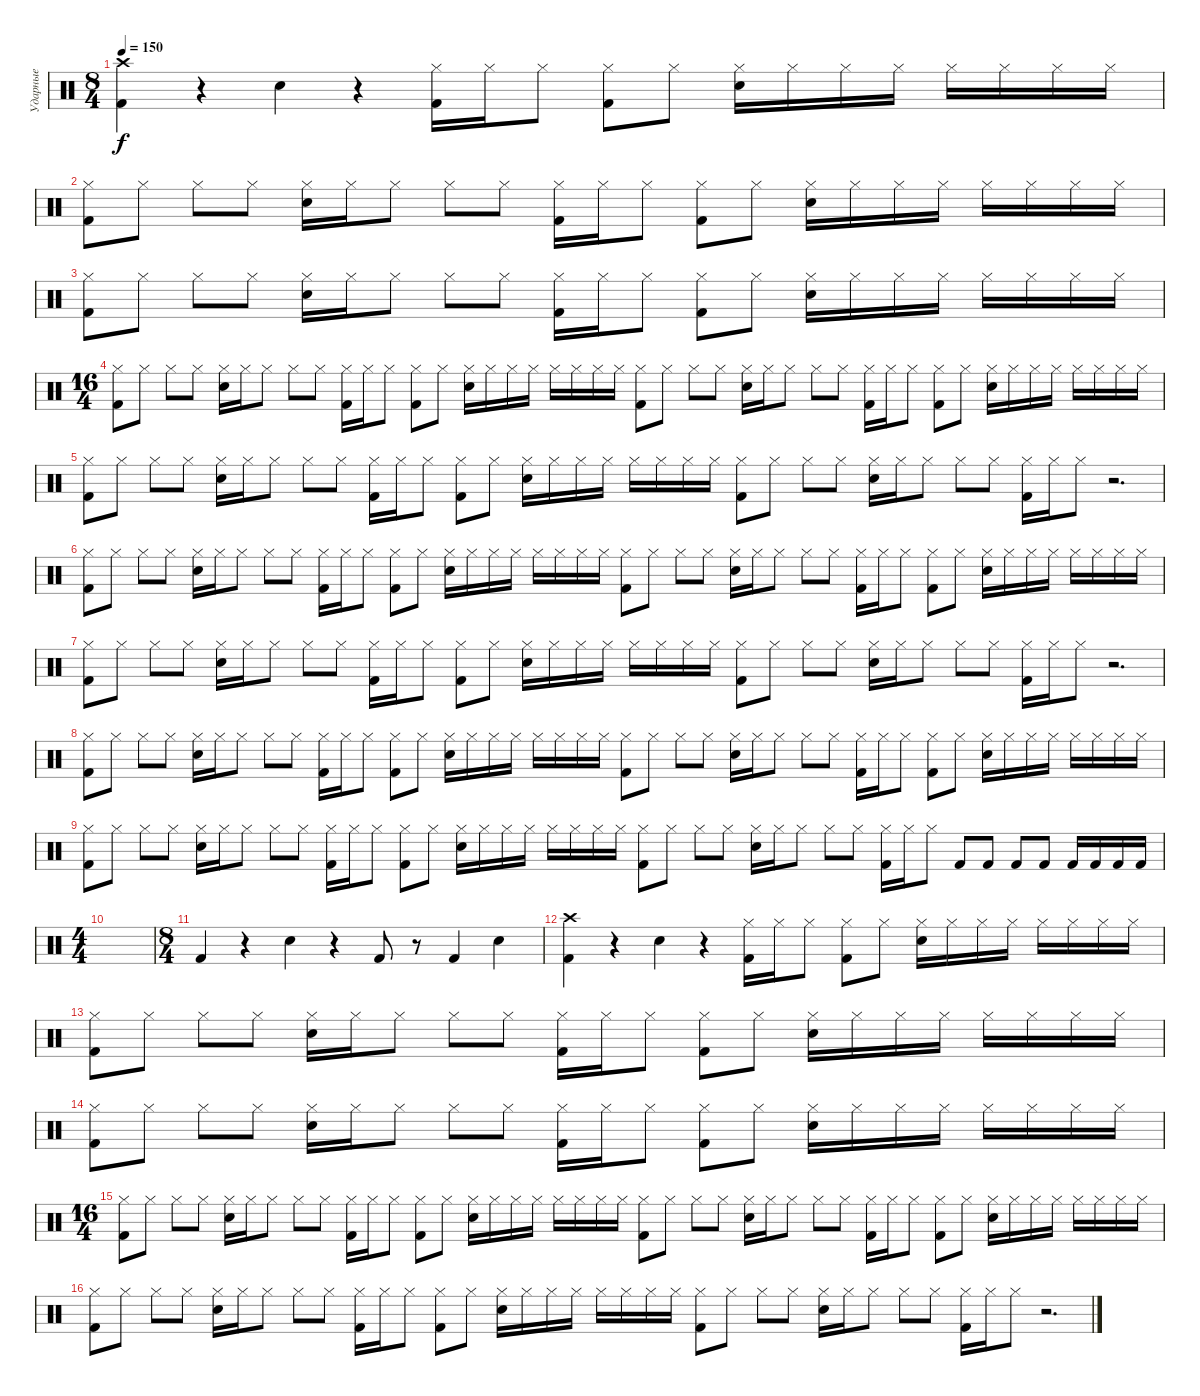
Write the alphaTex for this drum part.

\track ("Ударные" "Ударные") {instrument percussion}
\staff {score}
\articulation defaults
\ts (8 4)
\tempo 150
\clef neutral
\ks c
("Crash high (hit)" "Kick (hit) 2").4{dy f} r.4 "Electric Snare (hit)".4 r.4 ("Hi-Hat (closed)" "Kick (hit) 2").16{volume 13} "Hi-Hat (closed)".16 "Hi-Hat (closed)".8 ("Hi-Hat (closed)" "Kick (hit) 2").8 "Hi-Hat (closed)".8 ("Hi-Hat (closed)" "Electric Snare (hit)").16 "Hi-Hat (closed)".16 "Hi-Hat (closed)".16 "Hi-Hat (closed)".16 "Hi-Hat (closed)".16 "Hi-Hat (closed)".16 "Hi-Hat (closed)".16 "Hi-Hat (closed)".16 |
("Hi-Hat (closed)" "Kick (hit) 2").8 "Hi-Hat (closed)".8 "Hi-Hat (closed)".8 "Hi-Hat (closed)".8 ("Hi-Hat (closed)" "Electric Snare (hit)").16 "Hi-Hat (closed)".16 "Hi-Hat (closed)".8 "Hi-Hat (closed)".8 "Hi-Hat (closed)".8 ("Hi-Hat (closed)" "Kick (hit) 2").16 "Hi-Hat (closed)".16 "Hi-Hat (closed)".8 ("Hi-Hat (closed)" "Kick (hit) 2").8 "Hi-Hat (closed)".8 ("Hi-Hat (closed)" "Electric Snare (hit)").16 "Hi-Hat (closed)".16 "Hi-Hat (closed)".16 "Hi-Hat (closed)".16 "Hi-Hat (closed)".16 "Hi-Hat (closed)".16 "Hi-Hat (closed)".16 "Hi-Hat (closed)".16 |
("Hi-Hat (closed)" "Kick (hit) 2").8 "Hi-Hat (closed)".8 "Hi-Hat (closed)".8 "Hi-Hat (closed)".8 ("Hi-Hat (closed)" "Electric Snare (hit)").16 "Hi-Hat (closed)".16 "Hi-Hat (closed)".8 "Hi-Hat (closed)".8 "Hi-Hat (closed)".8 ("Hi-Hat (closed)" "Kick (hit) 2").16 "Hi-Hat (closed)".16 "Hi-Hat (closed)".8 ("Hi-Hat (closed)" "Kick (hit) 2").8 "Hi-Hat (closed)".8 ("Hi-Hat (closed)" "Electric Snare (hit)").16 "Hi-Hat (closed)".16 "Hi-Hat (closed)".16 "Hi-Hat (closed)".16 "Hi-Hat (closed)".16 "Hi-Hat (closed)".16 "Hi-Hat (closed)".16 "Hi-Hat (closed)".16 |
\ts (16 4)
("Hi-Hat (closed)" "Kick (hit) 2").8 "Hi-Hat (closed)".8 "Hi-Hat (closed)".8 "Hi-Hat (closed)".8 ("Hi-Hat (closed)" "Electric Snare (hit)").16 "Hi-Hat (closed)".16 "Hi-Hat (closed)".8 "Hi-Hat (closed)".8 "Hi-Hat (closed)".8 ("Hi-Hat (closed)" "Kick (hit) 2").16 "Hi-Hat (closed)".16 "Hi-Hat (closed)".8 ("Hi-Hat (closed)" "Kick (hit) 2").8 "Hi-Hat (closed)".8 ("Hi-Hat (closed)" "Electric Snare (hit)").16 "Hi-Hat (closed)".16 "Hi-Hat (closed)".16 "Hi-Hat (closed)".16 "Hi-Hat (closed)".16 "Hi-Hat (closed)".16 "Hi-Hat (closed)".16 "Hi-Hat (closed)".16 ("Hi-Hat (closed)" "Kick (hit) 2").8 "Hi-Hat (closed)".8 "Hi-Hat (closed)".8 "Hi-Hat (closed)".8 ("Hi-Hat (closed)" "Electric Snare (hit)").16 "Hi-Hat (closed)".16 "Hi-Hat (closed)".8 "Hi-Hat (closed)".8 "Hi-Hat (closed)".8 ("Hi-Hat (closed)" "Kick (hit) 2").16 "Hi-Hat (closed)".16 "Hi-Hat (closed)".8 ("Hi-Hat (closed)" "Kick (hit) 2").8 "Hi-Hat (closed)".8 ("Hi-Hat (closed)" "Electric Snare (hit)").16 "Hi-Hat (closed)".16 "Hi-Hat (closed)".16 "Hi-Hat (closed)".16 "Hi-Hat (closed)".16 "Hi-Hat (closed)".16 "Hi-Hat (closed)".16 "Hi-Hat (closed)".16 |
("Hi-Hat (closed)" "Kick (hit) 2").8 "Hi-Hat (closed)".8 "Hi-Hat (closed)".8 "Hi-Hat (closed)".8 ("Hi-Hat (closed)" "Electric Snare (hit)").16 "Hi-Hat (closed)".16 "Hi-Hat (closed)".8 "Hi-Hat (closed)".8 "Hi-Hat (closed)".8 ("Hi-Hat (closed)" "Kick (hit) 2").16 "Hi-Hat (closed)".16 "Hi-Hat (closed)".8 ("Hi-Hat (closed)" "Kick (hit) 2").8 "Hi-Hat (closed)".8 ("Hi-Hat (closed)" "Electric Snare (hit)").16 "Hi-Hat (closed)".16 "Hi-Hat (closed)".16 "Hi-Hat (closed)".16 "Hi-Hat (closed)".16 "Hi-Hat (closed)".16 "Hi-Hat (closed)".16 "Hi-Hat (closed)".16 ("Hi-Hat (closed)" "Kick (hit) 2").8 "Hi-Hat (closed)".8 "Hi-Hat (closed)".8 "Hi-Hat (closed)".8 ("Hi-Hat (closed)" "Electric Snare (hit)").16 "Hi-Hat (closed)".16 "Hi-Hat (closed)".8 "Hi-Hat (closed)".8 "Hi-Hat (closed)".8 ("Hi-Hat (closed)" "Kick (hit) 2").16 "Hi-Hat (closed)".16 "Hi-Hat (closed)".8 r.2{d} |
("Hi-Hat (closed)" "Kick (hit) 2").8 "Hi-Hat (closed)".8 "Hi-Hat (closed)".8 "Hi-Hat (closed)".8 ("Hi-Hat (closed)" "Electric Snare (hit)").16 "Hi-Hat (closed)".16 "Hi-Hat (closed)".8 "Hi-Hat (closed)".8 "Hi-Hat (closed)".8 ("Hi-Hat (closed)" "Kick (hit) 2").16 "Hi-Hat (closed)".16 "Hi-Hat (closed)".8 ("Hi-Hat (closed)" "Kick (hit) 2").8 "Hi-Hat (closed)".8 ("Hi-Hat (closed)" "Electric Snare (hit)").16 "Hi-Hat (closed)".16 "Hi-Hat (closed)".16 "Hi-Hat (closed)".16 "Hi-Hat (closed)".16 "Hi-Hat (closed)".16 "Hi-Hat (closed)".16 "Hi-Hat (closed)".16 ("Hi-Hat (closed)" "Kick (hit) 2").8 "Hi-Hat (closed)".8 "Hi-Hat (closed)".8 "Hi-Hat (closed)".8 ("Hi-Hat (closed)" "Electric Snare (hit)").16 "Hi-Hat (closed)".16 "Hi-Hat (closed)".8 "Hi-Hat (closed)".8 "Hi-Hat (closed)".8 ("Hi-Hat (closed)" "Kick (hit) 2").16 "Hi-Hat (closed)".16 "Hi-Hat (closed)".8 ("Hi-Hat (closed)" "Kick (hit) 2").8 "Hi-Hat (closed)".8 ("Hi-Hat (closed)" "Electric Snare (hit)").16 "Hi-Hat (closed)".16 "Hi-Hat (closed)".16 "Hi-Hat (closed)".16 "Hi-Hat (closed)".16 "Hi-Hat (closed)".16 "Hi-Hat (closed)".16 "Hi-Hat (closed)".16 |
("Hi-Hat (closed)" "Kick (hit) 2").8 "Hi-Hat (closed)".8 "Hi-Hat (closed)".8 "Hi-Hat (closed)".8 ("Hi-Hat (closed)" "Electric Snare (hit)").16 "Hi-Hat (closed)".16 "Hi-Hat (closed)".8 "Hi-Hat (closed)".8 "Hi-Hat (closed)".8 ("Hi-Hat (closed)" "Kick (hit) 2").16 "Hi-Hat (closed)".16 "Hi-Hat (closed)".8 ("Hi-Hat (closed)" "Kick (hit) 2").8 "Hi-Hat (closed)".8 ("Hi-Hat (closed)" "Electric Snare (hit)").16 "Hi-Hat (closed)".16 "Hi-Hat (closed)".16 "Hi-Hat (closed)".16 "Hi-Hat (closed)".16 "Hi-Hat (closed)".16 "Hi-Hat (closed)".16 "Hi-Hat (closed)".16 ("Hi-Hat (closed)" "Kick (hit) 2").8 "Hi-Hat (closed)".8 "Hi-Hat (closed)".8 "Hi-Hat (closed)".8 ("Hi-Hat (closed)" "Electric Snare (hit)").16 "Hi-Hat (closed)".16 "Hi-Hat (closed)".8 "Hi-Hat (closed)".8 "Hi-Hat (closed)".8 ("Hi-Hat (closed)" "Kick (hit) 2").16 "Hi-Hat (closed)".16 "Hi-Hat (closed)".8 r.2{d} |
("Hi-Hat (closed)" "Kick (hit) 2").8 "Hi-Hat (closed)".8 "Hi-Hat (closed)".8 "Hi-Hat (closed)".8 ("Hi-Hat (closed)" "Electric Snare (hit)").16 "Hi-Hat (closed)".16 "Hi-Hat (closed)".8 "Hi-Hat (closed)".8 "Hi-Hat (closed)".8 ("Hi-Hat (closed)" "Kick (hit) 2").16 "Hi-Hat (closed)".16 "Hi-Hat (closed)".8 ("Hi-Hat (closed)" "Kick (hit) 2").8 "Hi-Hat (closed)".8 ("Hi-Hat (closed)" "Electric Snare (hit)").16 "Hi-Hat (closed)".16 "Hi-Hat (closed)".16 "Hi-Hat (closed)".16 "Hi-Hat (closed)".16 "Hi-Hat (closed)".16 "Hi-Hat (closed)".16 "Hi-Hat (closed)".16 ("Hi-Hat (closed)" "Kick (hit) 2").8 "Hi-Hat (closed)".8 "Hi-Hat (closed)".8 "Hi-Hat (closed)".8 ("Hi-Hat (closed)" "Electric Snare (hit)").16 "Hi-Hat (closed)".16 "Hi-Hat (closed)".8 "Hi-Hat (closed)".8 "Hi-Hat (closed)".8 ("Hi-Hat (closed)" "Kick (hit) 2").16 "Hi-Hat (closed)".16 "Hi-Hat (closed)".8 ("Hi-Hat (closed)" "Kick (hit) 2").8 "Hi-Hat (closed)".8 ("Hi-Hat (closed)" "Electric Snare (hit)").16 "Hi-Hat (closed)".16 "Hi-Hat (closed)".16 "Hi-Hat (closed)".16 "Hi-Hat (closed)".16 "Hi-Hat (closed)".16 "Hi-Hat (closed)".16 "Hi-Hat (closed)".16 |
("Hi-Hat (closed)" "Kick (hit) 2").8 "Hi-Hat (closed)".8 "Hi-Hat (closed)".8 "Hi-Hat (closed)".8 ("Hi-Hat (closed)" "Electric Snare (hit)").16 "Hi-Hat (closed)".16 "Hi-Hat (closed)".8 "Hi-Hat (closed)".8 "Hi-Hat (closed)".8 ("Hi-Hat (closed)" "Kick (hit) 2").16 "Hi-Hat (closed)".16 "Hi-Hat (closed)".8 ("Hi-Hat (closed)" "Kick (hit) 2").8 "Hi-Hat (closed)".8 ("Hi-Hat (closed)" "Electric Snare (hit)").16 "Hi-Hat (closed)".16 "Hi-Hat (closed)".16 "Hi-Hat (closed)".16 "Hi-Hat (closed)".16 "Hi-Hat (closed)".16 "Hi-Hat (closed)".16 "Hi-Hat (closed)".16 ("Hi-Hat (closed)" "Kick (hit) 2").8 "Hi-Hat (closed)".8 "Hi-Hat (closed)".8 "Hi-Hat (closed)".8 ("Hi-Hat (closed)" "Electric Snare (hit)").16 "Hi-Hat (closed)".16 "Hi-Hat (closed)".8 "Hi-Hat (closed)".8 "Hi-Hat (closed)".8 ("Hi-Hat (closed)" "Kick (hit) 2").16 "Hi-Hat (closed)".16 "Hi-Hat (closed)".8 "Kick (hit) 2".8 "Kick (hit) 2".8 "Kick (hit) 2".8 "Kick (hit) 2".8 "Kick (hit) 2".16 "Kick (hit) 2".16 "Kick (hit) 2".16 "Kick (hit) 2".16 |
\ts (4 4)
|
\ts (8 4)
"Kick (hit) 2".4{volume 7} r.4 "Electric Snare (hit)".4 r.4 "Kick (hit) 2".8 r.8 "Kick (hit) 2".4 "Electric Snare (hit)".4 |
("Crash high (hit)" "Kick (hit) 2").4 r.4 "Electric Snare (hit)".4 r.4 ("Hi-Hat (closed)" "Kick (hit) 2").16{volume 13} "Hi-Hat (closed)".16 "Hi-Hat (closed)".8 ("Hi-Hat (closed)" "Kick (hit) 2").8 "Hi-Hat (closed)".8 ("Hi-Hat (closed)" "Electric Snare (hit)").16 "Hi-Hat (closed)".16 "Hi-Hat (closed)".16 "Hi-Hat (closed)".16 "Hi-Hat (closed)".16 "Hi-Hat (closed)".16 "Hi-Hat (closed)".16 "Hi-Hat (closed)".16 |
("Hi-Hat (closed)" "Kick (hit) 2").8 "Hi-Hat (closed)".8 "Hi-Hat (closed)".8 "Hi-Hat (closed)".8 ("Hi-Hat (closed)" "Electric Snare (hit)").16 "Hi-Hat (closed)".16 "Hi-Hat (closed)".8 "Hi-Hat (closed)".8 "Hi-Hat (closed)".8 ("Hi-Hat (closed)" "Kick (hit) 2").16 "Hi-Hat (closed)".16 "Hi-Hat (closed)".8 ("Hi-Hat (closed)" "Kick (hit) 2").8 "Hi-Hat (closed)".8 ("Hi-Hat (closed)" "Electric Snare (hit)").16 "Hi-Hat (closed)".16 "Hi-Hat (closed)".16 "Hi-Hat (closed)".16 "Hi-Hat (closed)".16 "Hi-Hat (closed)".16 "Hi-Hat (closed)".16 "Hi-Hat (closed)".16 |
("Hi-Hat (closed)" "Kick (hit) 2").8 "Hi-Hat (closed)".8 "Hi-Hat (closed)".8 "Hi-Hat (closed)".8 ("Hi-Hat (closed)" "Electric Snare (hit)").16 "Hi-Hat (closed)".16 "Hi-Hat (closed)".8 "Hi-Hat (closed)".8 "Hi-Hat (closed)".8 ("Hi-Hat (closed)" "Kick (hit) 2").16 "Hi-Hat (closed)".16 "Hi-Hat (closed)".8 ("Hi-Hat (closed)" "Kick (hit) 2").8 "Hi-Hat (closed)".8 ("Hi-Hat (closed)" "Electric Snare (hit)").16 "Hi-Hat (closed)".16 "Hi-Hat (closed)".16 "Hi-Hat (closed)".16 "Hi-Hat (closed)".16 "Hi-Hat (closed)".16 "Hi-Hat (closed)".16 "Hi-Hat (closed)".16 |
\ts (16 4)
("Hi-Hat (closed)" "Kick (hit) 2").8 "Hi-Hat (closed)".8 "Hi-Hat (closed)".8 "Hi-Hat (closed)".8 ("Hi-Hat (closed)" "Electric Snare (hit)").16 "Hi-Hat (closed)".16 "Hi-Hat (closed)".8 "Hi-Hat (closed)".8 "Hi-Hat (closed)".8 ("Hi-Hat (closed)" "Kick (hit) 2").16 "Hi-Hat (closed)".16 "Hi-Hat (closed)".8 ("Hi-Hat (closed)" "Kick (hit) 2").8 "Hi-Hat (closed)".8 ("Hi-Hat (closed)" "Electric Snare (hit)").16 "Hi-Hat (closed)".16 "Hi-Hat (closed)".16 "Hi-Hat (closed)".16 "Hi-Hat (closed)".16 "Hi-Hat (closed)".16 "Hi-Hat (closed)".16 "Hi-Hat (closed)".16 ("Hi-Hat (closed)" "Kick (hit) 2").8 "Hi-Hat (closed)".8 "Hi-Hat (closed)".8 "Hi-Hat (closed)".8 ("Hi-Hat (closed)" "Electric Snare (hit)").16 "Hi-Hat (closed)".16 "Hi-Hat (closed)".8 "Hi-Hat (closed)".8 "Hi-Hat (closed)".8 ("Hi-Hat (closed)" "Kick (hit) 2").16 "Hi-Hat (closed)".16 "Hi-Hat (closed)".8 ("Hi-Hat (closed)" "Kick (hit) 2").8 "Hi-Hat (closed)".8 ("Hi-Hat (closed)" "Electric Snare (hit)").16 "Hi-Hat (closed)".16 "Hi-Hat (closed)".16 "Hi-Hat (closed)".16 "Hi-Hat (closed)".16 "Hi-Hat (closed)".16 "Hi-Hat (closed)".16 "Hi-Hat (closed)".16 |
("Hi-Hat (closed)" "Kick (hit) 2").8 "Hi-Hat (closed)".8 "Hi-Hat (closed)".8 "Hi-Hat (closed)".8 ("Hi-Hat (closed)" "Electric Snare (hit)").16 "Hi-Hat (closed)".16 "Hi-Hat (closed)".8 "Hi-Hat (closed)".8 "Hi-Hat (closed)".8 ("Hi-Hat (closed)" "Kick (hit) 2").16 "Hi-Hat (closed)".16 "Hi-Hat (closed)".8 ("Hi-Hat (closed)" "Kick (hit) 2").8 "Hi-Hat (closed)".8 ("Hi-Hat (closed)" "Electric Snare (hit)").16 "Hi-Hat (closed)".16 "Hi-Hat (closed)".16 "Hi-Hat (closed)".16 "Hi-Hat (closed)".16 "Hi-Hat (closed)".16 "Hi-Hat (closed)".16 "Hi-Hat (closed)".16 ("Hi-Hat (closed)" "Kick (hit) 2").8 "Hi-Hat (closed)".8 "Hi-Hat (closed)".8 "Hi-Hat (closed)".8 ("Hi-Hat (closed)" "Electric Snare (hit)").16 "Hi-Hat (closed)".16 "Hi-Hat (closed)".8 "Hi-Hat (closed)".8 "Hi-Hat (closed)".8 ("Hi-Hat (closed)" "Kick (hit) 2").16 "Hi-Hat (closed)".16 "Hi-Hat (closed)".8 r.2{d}
